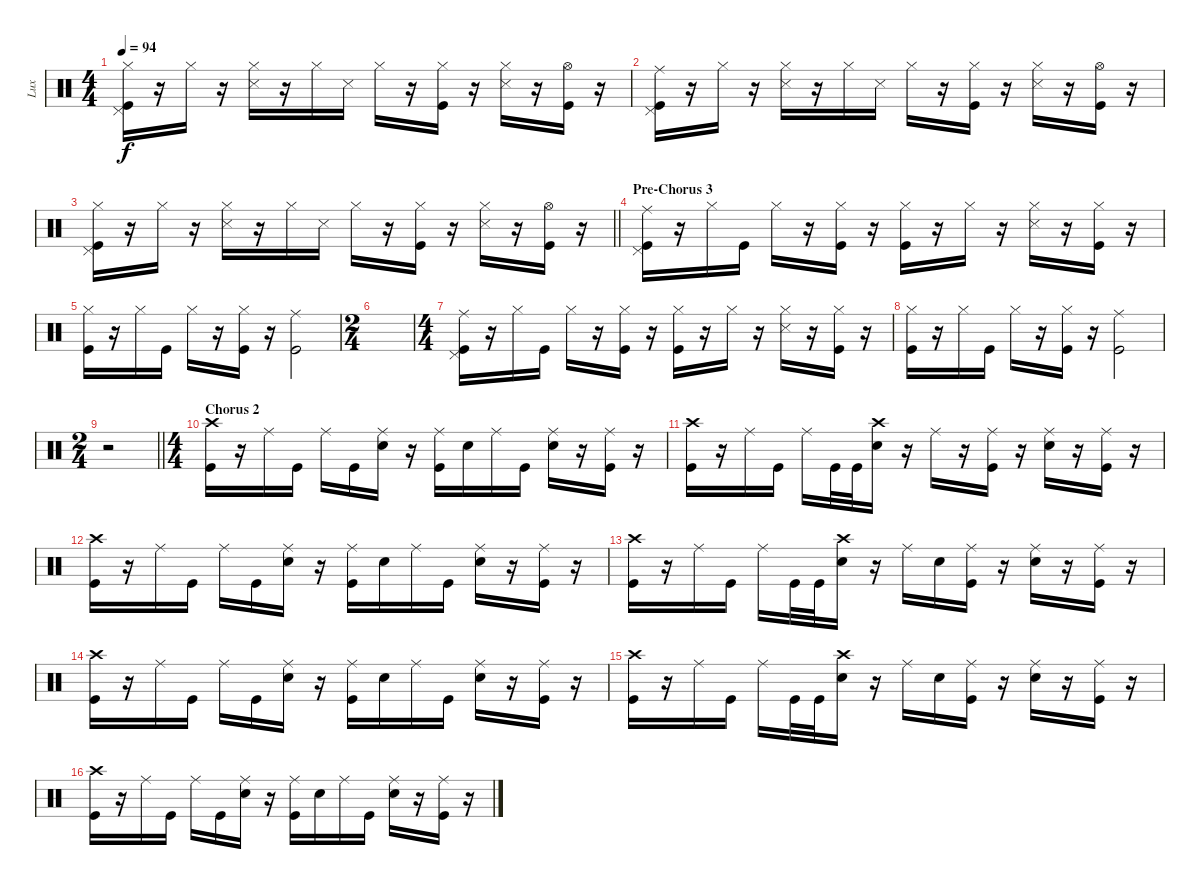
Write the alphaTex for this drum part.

\track ("Lux" "Lux") {instrument percussion}
\staff {score}
\articulation defaults
\ts (4 4)
\tempo 94
\clef neutral
\ks c
("Hi-Hat (closed)" "Pedal Hi-Hat (hit)" "Kick (hit)").16{dy f} r.16 "Hi-Hat (closed)".16 r.16 ("Hi-Hat (closed)" "Snare (side stick) 3").16 r.16 "Hi-Hat (closed)".16 "Snare (side stick) 3".16 "Hi-Hat (closed)".16 r.16 ("Hi-Hat (closed)" "Kick (hit)").16 r.16 ("Hi-Hat (closed)" "Snare (side stick) 3").16 r.16 ("Hi-Hat (open)" "Kick (hit)").16 r.16 |
("Ride (middle)" "Pedal Hi-Hat (hit)" "Kick (hit)").16 r.16 "Hi-Hat (closed)".16 r.16 ("Hi-Hat (closed)" "Snare (side stick) 3").16 r.16 "Hi-Hat (closed)".16 "Snare (side stick) 3".16 "Hi-Hat (closed)".16 r.16 ("Hi-Hat (closed)" "Kick (hit)").16 r.16 ("Hi-Hat (closed)" "Snare (side stick) 3").16 r.16 ("Hi-Hat (open)" "Kick (hit)").16 r.16 |
\barLineRight lightlight
("Hi-Hat (closed)" "Pedal Hi-Hat (hit)" "Kick (hit)").16 r.16 "Hi-Hat (closed)".16 r.16 ("Hi-Hat (closed)" "Snare (side stick) 3").16 r.16 "Hi-Hat (closed)".16 "Snare (side stick) 3".16 "Hi-Hat (closed)".16 r.16 ("Hi-Hat (closed)" "Kick (hit)").16 r.16 ("Hi-Hat (closed)" "Snare (side stick) 3").16 r.16 ("Hi-Hat (open)" "Kick (hit)").16 r.16 |
\section ("" "Pre-Chorus 3")
("Ride (middle)" "Pedal Hi-Hat (hit)" "Kick (hit)").16 r.16 "Hi-Hat (closed)".16 "Kick (hit)".16 "Hi-Hat (closed)".16 r.16 ("Hi-Hat (closed)" "Kick (hit)").16 r.16 ("Hi-Hat (closed)" "Kick (hit)").16 r.16 "Hi-Hat (closed)".16 r.16 ("Hi-Hat (closed)" "Snare (side stick) 3").16 r.16 ("Hi-Hat (closed)" "Kick (hit)").16 r.16 |
("Hi-Hat (closed)" "Kick (hit)").16 r.16 "Hi-Hat (closed)".16 "Kick (hit)".16 "Hi-Hat (closed)".16 r.16 ("Hi-Hat (closed)" "Kick (hit)").16 r.16 ("Ride (middle)" "Kick (hit)").2 |
\ts (2 4)
|
\ts (4 4)
("Ride (middle)" "Pedal Hi-Hat (hit)" "Kick (hit)").16 r.16 "Hi-Hat (closed)".16 "Kick (hit)".16 "Hi-Hat (closed)".16 r.16 ("Hi-Hat (closed)" "Kick (hit)").16 r.16 ("Hi-Hat (closed)" "Kick (hit)").16 r.16 "Hi-Hat (closed)".16 r.16 ("Hi-Hat (closed)" "Snare (side stick) 3").16 r.16 ("Hi-Hat (closed)" "Kick (hit)").16 r.16 |
("Hi-Hat (closed)" "Kick (hit)").16 r.16 "Hi-Hat (closed)".16 "Kick (hit)".16 "Hi-Hat (closed)".16 r.16 ("Hi-Hat (closed)" "Kick (hit)").16 r.16 ("Ride (middle)" "Kick (hit)").2 |
\ts (2 4)
\barLineRight lightlight
r.2 |
\ts (4 4)
\section ("" "Chorus 2")
("Crash high (hit)" "Kick (hit)").16 r.16 "Ride (middle)".16 "Kick (hit)".16 "Ride (middle)".16 "Kick (hit)".16 ("Ride (middle)" "Snare (hit) 2").16 r.16 ("Ride (middle)" "Kick (hit)").16 "Snare (hit) 2".16 "Ride (middle)".16 "Kick (hit)".16 ("Ride (middle)" "Snare (hit) 2").16 r.16 ("Ride (middle)" "Kick (hit)").16 r.16 |
("Crash high (hit)" "Kick (hit)").16 r.16 "Ride (middle)".16 "Kick (hit)".16 "Ride (middle)".16 "Kick (hit)".32 "Kick (hit)".32 ("Crash high (hit)" "Snare (hit) 2").16 r.16 "Ride (middle)".16 r.16 ("Ride (middle)" "Kick (hit)").16 r.16 ("Ride (middle)" "Snare (hit) 2").16 r.16 ("Ride (middle)" "Kick (hit)").16 r.16 |
("Crash high (hit)" "Kick (hit)").16 r.16 "Ride (middle)".16 "Kick (hit)".16 "Ride (middle)".16 "Kick (hit)".16 ("Ride (middle)" "Snare (hit) 2").16 r.16 ("Ride (middle)" "Kick (hit)").16 "Snare (hit) 2".16 "Ride (middle)".16 "Kick (hit)".16 ("Ride (middle)" "Snare (hit) 2").16 r.16 ("Ride (middle)" "Kick (hit)").16 r.16 |
("Crash high (hit)" "Kick (hit)").16 r.16 "Ride (middle)".16 "Kick (hit)".16 "Ride (middle)".16 "Kick (hit)".32 "Kick (hit)".32 ("Crash high (hit)" "Snare (hit) 2").16 r.16 "Ride (middle)".16 "Snare (hit) 2".16 ("Ride (middle)" "Kick (hit)").16 r.16 ("Ride (middle)" "Snare (hit) 2").16 r.16 ("Ride (middle)" "Kick (hit)").16 r.16 |
("Crash high (hit)" "Kick (hit)").16 r.16 "Ride (middle)".16 "Kick (hit)".16 "Ride (middle)".16 "Kick (hit)".16 ("Ride (middle)" "Snare (hit) 2").16 r.16 ("Ride (middle)" "Kick (hit)").16 "Snare (hit) 2".16 "Ride (middle)".16 "Kick (hit)".16 ("Ride (middle)" "Snare (hit) 2").16 r.16 ("Ride (middle)" "Kick (hit)").16 r.16 |
("Crash high (hit)" "Kick (hit)").16 r.16 "Ride (middle)".16 "Kick (hit)".16 "Ride (middle)".16 "Kick (hit)".32 "Kick (hit)".32 ("Crash high (hit)" "Snare (hit) 2").16 r.16 "Ride (middle)".16 "Snare (hit) 2".16 ("Ride (middle)" "Kick (hit)").16 r.16 ("Ride (middle)" "Snare (hit) 2").16 r.16 ("Ride (middle)" "Kick (hit)").16 r.16 |
("Crash high (hit)" "Kick (hit)").16 r.16 "Ride (middle)".16 "Kick (hit)".16 "Ride (middle)".16 "Kick (hit)".16 ("Ride (middle)" "Snare (hit) 2").16 r.16 ("Ride (middle)" "Kick (hit)").16 "Snare (hit) 2".16 "Ride (middle)".16 "Kick (hit)".16 ("Ride (middle)" "Snare (hit) 2").16 r.16 ("Ride (middle)" "Kick (hit)").16 r.16
